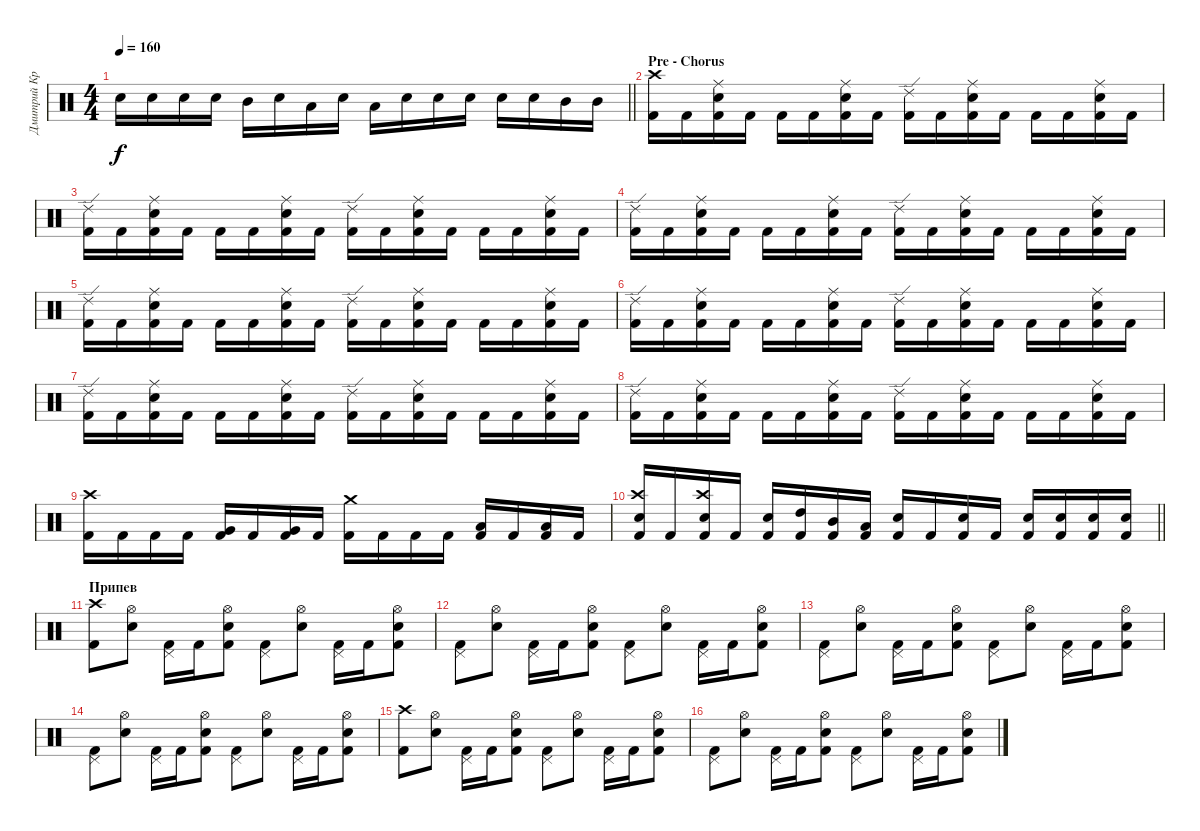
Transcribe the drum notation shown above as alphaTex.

\track ("Дмитрий Кривенков" "Дмитрий Кр") {instrument percussion}
\staff {score}
\articulation defaults
\ts (4 4)
\tempo 160
\clef neutral
\barLineRight lightlight
\ks c "Electric Snare (hit)".16{dy f} "Electric Snare (hit)".16 "Electric Snare (hit)".16 "Electric Snare (hit)".16 "Mid Tom (hit)".16 "Electric Snare (hit)".16 "Low Tom (hit)".16 "Electric Snare (hit)".16 "Low Tom (hit)".16 "Electric Snare (hit)".16 "Electric Snare (hit)".16 "Electric Snare (hit)".16 "Electric Snare (hit)".16 "Electric Snare (hit)".16 "Mid Tom (hit)".16 "Mid Tom (hit)".16
|
\section ("" "Pre - Chorus")
("Crash high (hit)" "Kick (hit) 2").16 "Kick (hit) 2".16 ("Ride (middle)" "Electric Snare (hit)" "Kick (hit) 2").16 "Kick (hit) 2".16 "Kick (hit) 2".16 "Kick (hit) 2".16 ("Ride (middle)" "Electric Snare (hit)" "Kick (hit) 2").16 "Kick (hit) 2".16 ("Ride (edge) 2" "Kick (hit) 2").16 "Kick (hit) 2".16 ("Ride (middle)" "Electric Snare (hit)" "Kick (hit) 2").16 "Kick (hit) 2".16 "Kick (hit) 2".16 "Kick (hit) 2".16 ("Ride (middle)" "Electric Snare (hit)" "Kick (hit) 2").16 "Kick (hit) 2".16 |
("Ride (edge) 2" "Kick (hit) 2").16 "Kick (hit) 2".16 ("Ride (middle)" "Electric Snare (hit)" "Kick (hit) 2").16 "Kick (hit) 2".16 "Kick (hit) 2".16 "Kick (hit) 2".16 ("Ride (middle)" "Electric Snare (hit)" "Kick (hit) 2").16 "Kick (hit) 2".16 ("Ride (edge) 2" "Kick (hit) 2").16 "Kick (hit) 2".16 ("Ride (middle)" "Electric Snare (hit)" "Kick (hit) 2").16 "Kick (hit) 2".16 "Kick (hit) 2".16 "Kick (hit) 2".16 ("Ride (middle)" "Electric Snare (hit)" "Kick (hit) 2").16 "Kick (hit) 2".16 |
("Ride (edge) 2" "Kick (hit) 2").16 "Kick (hit) 2".16 ("Ride (middle)" "Electric Snare (hit)" "Kick (hit) 2").16 "Kick (hit) 2".16 "Kick (hit) 2".16 "Kick (hit) 2".16 ("Ride (middle)" "Electric Snare (hit)" "Kick (hit) 2").16 "Kick (hit) 2".16 ("Ride (edge) 2" "Kick (hit) 2").16 "Kick (hit) 2".16 ("Ride (middle)" "Electric Snare (hit)" "Kick (hit) 2").16 "Kick (hit) 2".16 "Kick (hit) 2".16 "Kick (hit) 2".16 ("Ride (middle)" "Electric Snare (hit)" "Kick (hit) 2").16 "Kick (hit) 2".16 |
("Ride (edge) 2" "Kick (hit) 2").16 "Kick (hit) 2".16 ("Ride (middle)" "Electric Snare (hit)" "Kick (hit) 2").16 "Kick (hit) 2".16 "Kick (hit) 2".16 "Kick (hit) 2".16 ("Ride (middle)" "Electric Snare (hit)" "Kick (hit) 2").16 "Kick (hit) 2".16 ("Ride (edge) 2" "Kick (hit) 2").16 "Kick (hit) 2".16 ("Ride (middle)" "Electric Snare (hit)" "Kick (hit) 2").16 "Kick (hit) 2".16 "Kick (hit) 2".16 "Kick (hit) 2".16 ("Ride (middle)" "Electric Snare (hit)" "Kick (hit) 2").16 "Kick (hit) 2".16 |
("Ride (edge) 2" "Kick (hit) 2").16 "Kick (hit) 2".16 ("Ride (middle)" "Electric Snare (hit)" "Kick (hit) 2").16 "Kick (hit) 2".16 "Kick (hit) 2".16 "Kick (hit) 2".16 ("Ride (middle)" "Electric Snare (hit)" "Kick (hit) 2").16 "Kick (hit) 2".16 ("Ride (edge) 2" "Kick (hit) 2").16 "Kick (hit) 2".16 ("Ride (middle)" "Electric Snare (hit)" "Kick (hit) 2").16 "Kick (hit) 2".16 "Kick (hit) 2".16 "Kick (hit) 2".16 ("Ride (middle)" "Electric Snare (hit)" "Kick (hit) 2").16 "Kick (hit) 2".16 |
("Ride (edge) 2" "Kick (hit) 2").16 "Kick (hit) 2".16 ("Ride (middle)" "Electric Snare (hit)" "Kick (hit) 2").16 "Kick (hit) 2".16 "Kick (hit) 2".16 "Kick (hit) 2".16 ("Ride (middle)" "Electric Snare (hit)" "Kick (hit) 2").16 "Kick (hit) 2".16 ("Ride (edge) 2" "Kick (hit) 2").16 "Kick (hit) 2".16 ("Ride (middle)" "Electric Snare (hit)" "Kick (hit) 2").16 "Kick (hit) 2".16 "Kick (hit) 2".16 "Kick (hit) 2".16 ("Ride (middle)" "Electric Snare (hit)" "Kick (hit) 2").16 "Kick (hit) 2".16 |
("Ride (edge) 2" "Kick (hit) 2").16 "Kick (hit) 2".16 ("Ride (middle)" "Electric Snare (hit)" "Kick (hit) 2").16 "Kick (hit) 2".16 "Kick (hit) 2".16 "Kick (hit) 2".16 ("Ride (middle)" "Electric Snare (hit)" "Kick (hit) 2").16 "Kick (hit) 2".16 ("Ride (edge) 2" "Kick (hit) 2").16 "Kick (hit) 2".16 ("Ride (middle)" "Electric Snare (hit)" "Kick (hit) 2").16 "Kick (hit) 2".16 "Kick (hit) 2".16 "Kick (hit) 2".16 ("Ride (middle)" "Electric Snare (hit)" "Kick (hit) 2").16 "Kick (hit) 2".16 |
("Crash high (hit)" "Kick (hit) 2").16 "Kick (hit) 2".16 "Kick (hit) 2".16 "Kick (hit) 2".16 ("Very Low Tom (hit)" "Kick (hit) 2").16 "Kick (hit) 2".16 ("Very Low Tom (hit)" "Kick (hit) 2").16 "Kick (hit) 2".16 ("Crash medium (hit)" "Kick (hit) 2").16 "Kick (hit) 2".16 "Kick (hit) 2".16 "Kick (hit) 2".16 ("Low Tom (hit)" "Kick (hit) 2").16 "Kick (hit) 2".16 ("Low Tom (hit)" "Kick (hit) 2").16 "Kick (hit) 2".16 |
\barLineRight lightlight
("Crash high (hit)" "Electric Snare (hit)" "Kick (hit) 2").16 "Kick (hit) 2".16 ("Crash high (hit)" "Electric Snare (hit)" "Kick (hit) 2").16 "Kick (hit) 2".16 ("Electric Snare (hit)" "Kick (hit) 2").16 ("High Tom (hit)" "Kick (hit) 2").16 ("Mid Tom (hit)" "Kick (hit) 2").16 ("Low Tom (hit)" "Kick (hit) 2").16 ("Electric Snare (hit)" "Kick (hit) 2").16 "Kick (hit) 2".16 ("Electric Snare (hit)" "Kick (hit) 2").16 "Kick (hit) 2".16 ("Electric Snare (hit)" "Kick (hit) 2").16 ("Electric Snare (hit)" "Kick (hit) 2").16 ("Electric Snare (hit)" "Kick (hit) 2").16 ("Electric Snare (hit)" "Kick (hit) 2").16 |
\section ("" "Припев")
("Crash high (hit)" "Kick (hit) 2").8 ("Hi-Hat (open)" "Electric Snare (hit)").8 ("Pedal Hi-Hat (hit)" "Kick (hit) 2").16 "Kick (hit) 2".16 ("Hi-Hat (open)" "Electric Snare (hit)" "Kick (hit) 2").8 ("Pedal Hi-Hat (hit)" "Kick (hit) 2").8 ("Hi-Hat (open)" "Electric Snare (hit)").8 ("Pedal Hi-Hat (hit)" "Kick (hit) 2").16 "Kick (hit) 2".16 ("Hi-Hat (open)" "Electric Snare (hit)" "Kick (hit) 2").8 |
("Pedal Hi-Hat (hit)" "Kick (hit) 2").8 ("Hi-Hat (open)" "Electric Snare (hit)").8 ("Pedal Hi-Hat (hit)" "Kick (hit) 2").16 "Kick (hit) 2".16 ("Hi-Hat (open)" "Electric Snare (hit)" "Kick (hit) 2").8 ("Pedal Hi-Hat (hit)" "Kick (hit) 2").8 ("Hi-Hat (open)" "Electric Snare (hit)").8 ("Pedal Hi-Hat (hit)" "Kick (hit) 2").16 "Kick (hit) 2".16 ("Hi-Hat (open)" "Electric Snare (hit)" "Kick (hit) 2").8 |
("Pedal Hi-Hat (hit)" "Kick (hit) 2").8 ("Hi-Hat (open)" "Electric Snare (hit)").8 ("Pedal Hi-Hat (hit)" "Kick (hit) 2").16 "Kick (hit) 2".16 ("Hi-Hat (open)" "Electric Snare (hit)" "Kick (hit) 2").8 ("Pedal Hi-Hat (hit)" "Kick (hit) 2").8 ("Hi-Hat (open)" "Electric Snare (hit)").8 ("Pedal Hi-Hat (hit)" "Kick (hit) 2").16 "Kick (hit) 2".16 ("Hi-Hat (open)" "Electric Snare (hit)" "Kick (hit) 2").8 |
("Pedal Hi-Hat (hit)" "Kick (hit) 2").8 ("Hi-Hat (open)" "Electric Snare (hit)").8 ("Pedal Hi-Hat (hit)" "Kick (hit) 2").16 "Kick (hit) 2".16 ("Hi-Hat (open)" "Electric Snare (hit)" "Kick (hit) 2").8 ("Pedal Hi-Hat (hit)" "Kick (hit) 2").8 ("Hi-Hat (open)" "Electric Snare (hit)").8 ("Pedal Hi-Hat (hit)" "Kick (hit) 2").16 "Kick (hit) 2".16 ("Hi-Hat (open)" "Electric Snare (hit)" "Kick (hit) 2").8 |
("Crash high (hit)" "Kick (hit) 2").8 ("Hi-Hat (open)" "Electric Snare (hit)").8 ("Pedal Hi-Hat (hit)" "Kick (hit) 2").16 "Kick (hit) 2".16 ("Hi-Hat (open)" "Electric Snare (hit)" "Kick (hit) 2").8 ("Pedal Hi-Hat (hit)" "Kick (hit) 2").8 ("Hi-Hat (open)" "Electric Snare (hit)").8 ("Pedal Hi-Hat (hit)" "Kick (hit) 2").16 "Kick (hit) 2".16 ("Hi-Hat (open)" "Electric Snare (hit)" "Kick (hit) 2").8 |
("Pedal Hi-Hat (hit)" "Kick (hit) 2").8 ("Hi-Hat (open)" "Electric Snare (hit)").8 ("Pedal Hi-Hat (hit)" "Kick (hit) 2").16 "Kick (hit) 2".16 ("Hi-Hat (open)" "Electric Snare (hit)" "Kick (hit) 2").8 ("Pedal Hi-Hat (hit)" "Kick (hit) 2").8 ("Hi-Hat (open)" "Electric Snare (hit)").8 ("Pedal Hi-Hat (hit)" "Kick (hit) 2").16 "Kick (hit) 2".16 ("Hi-Hat (open)" "Electric Snare (hit)" "Kick (hit) 2").8
